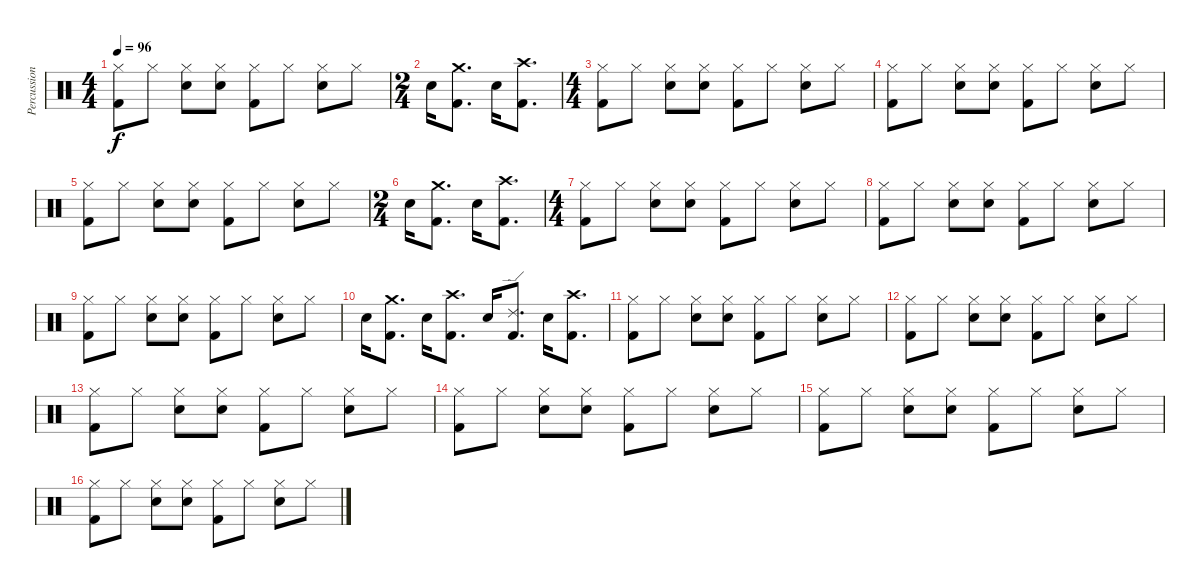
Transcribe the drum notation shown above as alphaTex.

\track ("Percussion" "Percussion") {instrument percussion}
\staff {score}
\articulation defaults
\ts (4 4)
\tempo 96
\clef neutral
\ks c
("Hi-Hat (closed)" "Kick (hit) 2").8{dy f} "Hi-Hat (closed)".8 ("Hi-Hat (closed)" "Snare (hit) 2").8 ("Hi-Hat (closed)" "Snare (hit) 2").8 ("Hi-Hat (closed)" "Kick (hit) 2").8 "Hi-Hat (closed)".8 ("Hi-Hat (closed)" "Snare (hit) 2").8 "Hi-Hat (closed)".8 |
\ts (2 4)
"Snare (hit) 2".16 ("Crash medium (hit)" "Kick (hit) 2").8{d} "Snare (hit) 2".16 ("Crash high (hit)" "Kick (hit) 2").8{d} |
\ts (4 4)
("Hi-Hat (closed)" "Kick (hit) 2").8 "Hi-Hat (closed)".8 ("Hi-Hat (closed)" "Snare (hit) 2").8 ("Hi-Hat (closed)" "Snare (hit) 2").8 ("Hi-Hat (closed)" "Kick (hit) 2").8 "Hi-Hat (closed)".8 ("Hi-Hat (closed)" "Snare (hit) 2").8 "Hi-Hat (closed)".8 |
("Hi-Hat (closed)" "Kick (hit) 2").8 "Hi-Hat (closed)".8 ("Hi-Hat (closed)" "Snare (hit) 2").8 ("Hi-Hat (closed)" "Snare (hit) 2").8 ("Hi-Hat (closed)" "Kick (hit) 2").8 "Hi-Hat (closed)".8 ("Hi-Hat (closed)" "Snare (hit) 2").8 "Hi-Hat (closed)".8 |
("Hi-Hat (closed)" "Kick (hit) 2").8 "Hi-Hat (closed)".8 ("Hi-Hat (closed)" "Snare (hit) 2").8 ("Hi-Hat (closed)" "Snare (hit) 2").8 ("Hi-Hat (closed)" "Kick (hit) 2").8 "Hi-Hat (closed)".8 ("Hi-Hat (closed)" "Snare (hit) 2").8 "Hi-Hat (closed)".8 |
\ts (2 4)
"Snare (hit) 2".16 ("Crash medium (hit)" "Kick (hit) 2").8{d} "Snare (hit) 2".16 ("Crash high (hit)" "Kick (hit) 2").8{d} |
\ts (4 4)
("Hi-Hat (closed)" "Kick (hit) 2").8 "Hi-Hat (closed)".8 ("Hi-Hat (closed)" "Snare (hit) 2").8 ("Hi-Hat (closed)" "Snare (hit) 2").8 ("Hi-Hat (closed)" "Kick (hit) 2").8 "Hi-Hat (closed)".8 ("Hi-Hat (closed)" "Snare (hit) 2").8 "Hi-Hat (closed)".8 |
("Hi-Hat (closed)" "Kick (hit) 2").8 "Hi-Hat (closed)".8 ("Hi-Hat (closed)" "Snare (hit) 2").8 ("Hi-Hat (closed)" "Snare (hit) 2").8 ("Hi-Hat (closed)" "Kick (hit) 2").8 "Hi-Hat (closed)".8 ("Hi-Hat (closed)" "Snare (hit) 2").8 "Hi-Hat (closed)".8 |
("Hi-Hat (closed)" "Kick (hit) 2").8 "Hi-Hat (closed)".8 ("Hi-Hat (closed)" "Snare (hit) 2").8 ("Hi-Hat (closed)" "Snare (hit) 2").8 ("Hi-Hat (closed)" "Kick (hit) 2").8 "Hi-Hat (closed)".8 ("Hi-Hat (closed)" "Snare (hit) 2").8 "Hi-Hat (closed)".8 |
"Snare (hit) 2".16 ("Crash medium (hit)" "Kick (hit) 2").8{d} "Snare (hit) 2".16 ("Crash high (hit)" "Kick (hit) 2").8{d} "Snare (hit) 2".16 ("Ride (edge) 2" "Kick (hit) 2").8{d} "Snare (hit) 2".16 ("Crash high (hit)" "Kick (hit) 2").8{d} |
("Hi-Hat (closed)" "Kick (hit) 2").8 "Hi-Hat (closed)".8 ("Hi-Hat (closed)" "Snare (hit) 2").8 ("Hi-Hat (closed)" "Snare (hit) 2").8 ("Hi-Hat (closed)" "Kick (hit) 2").8 "Hi-Hat (closed)".8 ("Hi-Hat (closed)" "Snare (hit) 2").8 "Hi-Hat (closed)".8 |
("Hi-Hat (closed)" "Kick (hit) 2").8 "Hi-Hat (closed)".8 ("Hi-Hat (closed)" "Snare (hit) 2").8 ("Hi-Hat (closed)" "Snare (hit) 2").8 ("Hi-Hat (closed)" "Kick (hit) 2").8 "Hi-Hat (closed)".8 ("Hi-Hat (closed)" "Snare (hit) 2").8 "Hi-Hat (closed)".8 |
("Hi-Hat (closed)" "Kick (hit) 2").8 "Hi-Hat (closed)".8 ("Hi-Hat (closed)" "Snare (hit) 2").8 ("Hi-Hat (closed)" "Snare (hit) 2").8 ("Hi-Hat (closed)" "Kick (hit) 2").8 "Hi-Hat (closed)".8 ("Hi-Hat (closed)" "Snare (hit) 2").8 "Hi-Hat (closed)".8 |
("Hi-Hat (closed)" "Kick (hit) 2").8 "Hi-Hat (closed)".8 ("Hi-Hat (closed)" "Snare (hit) 2").8 ("Hi-Hat (closed)" "Snare (hit) 2").8 ("Hi-Hat (closed)" "Kick (hit) 2").8 "Hi-Hat (closed)".8 ("Hi-Hat (closed)" "Snare (hit) 2").8 "Hi-Hat (closed)".8 |
("Hi-Hat (closed)" "Kick (hit) 2").8 "Hi-Hat (closed)".8 ("Hi-Hat (closed)" "Snare (hit) 2").8 ("Hi-Hat (closed)" "Snare (hit) 2").8 ("Hi-Hat (closed)" "Kick (hit) 2").8 "Hi-Hat (closed)".8 ("Hi-Hat (closed)" "Snare (hit) 2").8 "Hi-Hat (closed)".8 |
("Hi-Hat (closed)" "Kick (hit) 2").8 "Hi-Hat (closed)".8 ("Hi-Hat (closed)" "Snare (hit) 2").8 ("Hi-Hat (closed)" "Snare (hit) 2").8 ("Hi-Hat (closed)" "Kick (hit) 2").8 "Hi-Hat (closed)".8 ("Hi-Hat (closed)" "Snare (hit) 2").8 "Hi-Hat (closed)".8
